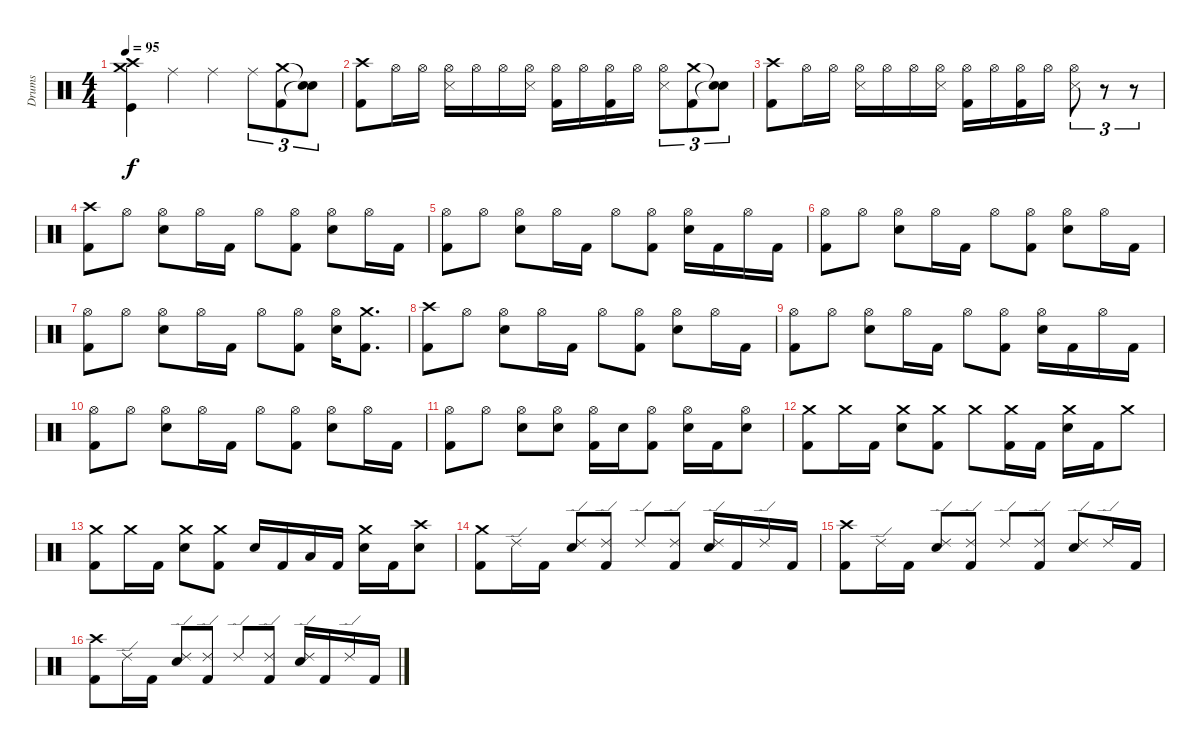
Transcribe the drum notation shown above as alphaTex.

\track ("Drums" "Drums") {instrument percussion}
\staff {score}
\articulation defaults
\ts (4 4)
\tempo 95
\clef neutral
\ks c
("Crash medium (hit)" "Crash high (hit)" "Kick (hit)").4{dy f} "Ride (middle)".4 "Ride (middle)".4 "Ride (middle)".8{tu (3 2)} ("Crash medium (hit)" "Kick (hit) 2").8{tu (3 2)} ("Snare (hit)"{t} "Snare (hit)"{t}).8{tu (3 2)} |
("Crash high (hit)" "Kick (hit) 2").8 "Hi-Hat (open)".16 "Hi-Hat (open)".16{volume 9 balance 5} ("Hi-Hat (open)" "Snare (side stick) 3").16 "Hi-Hat (open)".16 "Hi-Hat (open)".16 ("Hi-Hat (open)" "Snare (side stick) 3").16 ("Hi-Hat (open)" "Kick (hit) 2").16 "Hi-Hat (open)".16 ("Hi-Hat (open)" "Kick (hit) 2").16 "Hi-Hat (open)".16 ("Hi-Hat (open)" "Snare (side stick) 3").8{tu (3 2)} ("Crash medium (hit)" "Kick (hit) 2").8{tu (3 2) volume 14 balance 8} ("Snare (hit)"{t} "Snare (hit)"{t}).8{tu (3 2)} |
("Crash high (hit)" "Kick (hit) 2").8 "Hi-Hat (open)".16 "Hi-Hat (open)".16{volume 9 balance 5} ("Hi-Hat (open)" "Snare (side stick) 3").16 "Hi-Hat (open)".16 "Hi-Hat (open)".16 ("Hi-Hat (open)" "Snare (side stick) 3").16 ("Hi-Hat (open)" "Kick (hit) 2").16 "Hi-Hat (open)".16 ("Hi-Hat (open)" "Kick (hit) 2").16 "Hi-Hat (open)".16 ("Hi-Hat (open)" "Snare (side stick) 3").8{tu (3 2)} r.8{tu (3 2)} r.8{tu (3 2)} |
("Crash high (hit)" "Kick (hit) 2").8{volume 14 balance 8} "Hi-Hat (open)".8 ("Hi-Hat (open)" "Snare (hit) 2").8 "Hi-Hat (open)".16 "Kick (hit) 2".16 "Hi-Hat (open)".8 ("Hi-Hat (open)" "Kick (hit) 2").8 ("Hi-Hat (open)" "Snare (hit) 2").8 "Hi-Hat (open)".16 "Kick (hit) 2".16 |
("Hi-Hat (open)" "Kick (hit) 2").8 "Hi-Hat (open)".8 ("Hi-Hat (open)" "Snare (hit) 2").8 "Hi-Hat (open)".16 "Kick (hit) 2".16 "Hi-Hat (open)".8 ("Hi-Hat (open)" "Kick (hit) 2").8 ("Hi-Hat (open)" "Snare (hit) 2").16 "Kick (hit) 2".16 "Hi-Hat (open)".16 "Kick (hit) 2".16 |
("Hi-Hat (open)" "Kick (hit) 2").8 "Hi-Hat (open)".8 ("Hi-Hat (open)" "Snare (hit) 2").8 "Hi-Hat (open)".16 "Kick (hit) 2".16 "Hi-Hat (open)".8 ("Hi-Hat (open)" "Kick (hit) 2").8 ("Hi-Hat (open)" "Snare (hit) 2").8 "Hi-Hat (open)".16 "Kick (hit) 2".16 |
("Hi-Hat (open)" "Kick (hit) 2").8 "Hi-Hat (open)".8 ("Hi-Hat (open)" "Snare (hit) 2").8 "Hi-Hat (open)".16 "Kick (hit) 2".16 "Hi-Hat (open)".8 ("Hi-Hat (open)" "Kick (hit) 2").8 ("Hi-Hat (open)" "Snare (hit) 2").16 ("Crash medium (hit)" "Kick (hit) 2").8{d} |
("Crash high (hit)" "Kick (hit) 2").8 "Hi-Hat (open)".8 ("Hi-Hat (open)" "Snare (hit) 2").8 "Hi-Hat (open)".16 "Kick (hit) 2".16 "Hi-Hat (open)".8 ("Hi-Hat (open)" "Kick (hit) 2").8 ("Hi-Hat (open)" "Snare (hit) 2").8 "Hi-Hat (open)".16 "Kick (hit) 2".16 |
("Hi-Hat (open)" "Kick (hit) 2").8 "Hi-Hat (open)".8 ("Hi-Hat (open)" "Snare (hit) 2").8 "Hi-Hat (open)".16 "Kick (hit) 2".16 "Hi-Hat (open)".8 ("Hi-Hat (open)" "Kick (hit) 2").8 ("Hi-Hat (open)" "Snare (hit) 2").16 "Kick (hit) 2".16 "Hi-Hat (open)".16 "Kick (hit) 2".16 |
("Hi-Hat (open)" "Kick (hit) 2").8 "Hi-Hat (open)".8 ("Hi-Hat (open)" "Snare (hit) 2").8 "Hi-Hat (open)".16 "Kick (hit) 2".16 "Hi-Hat (open)".8 ("Hi-Hat (open)" "Kick (hit) 2").8 ("Hi-Hat (open)" "Snare (hit) 2").8 "Hi-Hat (open)".16 "Kick (hit) 2".16 |
("Hi-Hat (open)" "Kick (hit) 2").8 "Hi-Hat (open)".8 ("Hi-Hat (open)" "Snare (hit) 2").8 ("Hi-Hat (open)" "Snare (hit) 2").8 ("Hi-Hat (open)" "Kick (hit) 2").16 "Snare (hit) 2".16 ("Hi-Hat (open)" "Kick (hit) 2").8 ("Hi-Hat (open)" "Snare (hit) 2").16 "Kick (hit) 2".16 ("Hi-Hat (open)" "Snare (hit) 2").8 |
("Crash medium (hit)" "Kick (hit) 2").8 "Crash medium (hit)".16 "Kick (hit) 2".16 ("Crash medium (hit)" "Snare (hit) 2").8 ("Crash medium (hit)" "Kick (hit) 2").8 "Crash medium (hit)".8 ("Crash medium (hit)" "Kick (hit) 2").16 "Kick (hit) 2".16 ("Crash medium (hit)" "Snare (hit) 2").16 "Kick (hit) 2".16 "Crash medium (hit)".8 |
("Crash medium (hit)" "Kick (hit) 2").8 "Crash medium (hit)".16 "Kick (hit) 2".16 ("Crash medium (hit)" "Snare (hit) 2").8 ("Crash medium (hit)" "Kick (hit) 2").8 "Snare (hit) 2".16 "Kick (hit) 2".16 "Low Floor Tom (hit)".16 "Kick (hit) 2".16 ("Crash medium (hit)" "Snare (hit) 2").16 "Kick (hit) 2".16 ("Crash high (hit)" "Snare (hit) 2").8 |
("Crash medium (hit)" "Kick (hit) 2").8 "Ride (edge) 2".16 "Kick (hit) 2".16 ("Ride (edge) 2" "Snare (hit) 2").8 ("Ride (edge) 2" "Kick (hit) 2").8 "Ride (edge) 2".8 ("Ride (edge) 2" "Kick (hit) 2").8 ("Ride (edge) 2" "Snare (hit) 2").16 "Kick (hit) 2".16 "Ride (edge) 2".16 "Kick (hit) 2".16 |
("Crash high (hit)" "Kick (hit) 2").8 "Ride (edge) 2".16 "Kick (hit) 2".16 ("Ride (edge) 2" "Snare (hit) 2").8 ("Ride (edge) 2" "Kick (hit) 2").8 "Ride (edge) 2".8 ("Ride (edge) 2" "Kick (hit) 2").8 ("Ride (edge) 2" "Snare (hit) 2").8 "Ride (edge) 2".16 "Kick (hit) 2".16 |
("Crash high (hit)" "Kick (hit) 2").8 "Ride (edge) 2".16 "Kick (hit) 2".16 ("Ride (edge) 2" "Snare (hit) 2").8 ("Ride (edge) 2" "Kick (hit) 2").8 "Ride (edge) 2".8 ("Ride (edge) 2" "Kick (hit) 2").8 ("Ride (edge) 2" "Snare (hit) 2").16 "Kick (hit) 2".16 "Ride (edge) 2".16 "Kick (hit) 2".16
